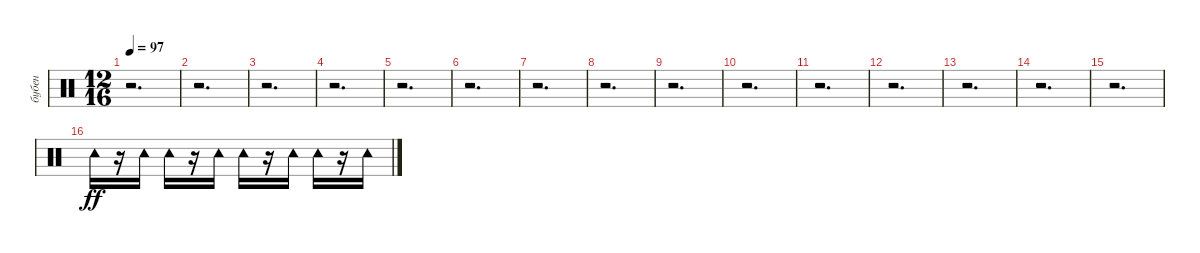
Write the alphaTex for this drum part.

\track ("бубен" "бубен") {instrument percussion}
\staff {score}
\articulation defaults
\ts (12 16)
\tempo 97
\clef neutral
\ks c
r.2{d dy ff} |
r.2{d} |
r.2{d} |
r.2{d} |
r.2{d} |
r.2{d} |
r.2{d} |
r.2{d} |
r.2{d} |
r.2{d} |
r.2{d} |
r.2{d} |
r.2{d} |
r.2{d} |
r.2{d} |
"Tambourine (hit)".16 r.16 "Tambourine (hit)".16 "Tambourine (hit)".16 r.16 "Tambourine (hit)".16 "Tambourine (hit)".16 r.16 "Tambourine (hit)".16 "Tambourine (hit)".16 r.16 "Tambourine (hit)".16
